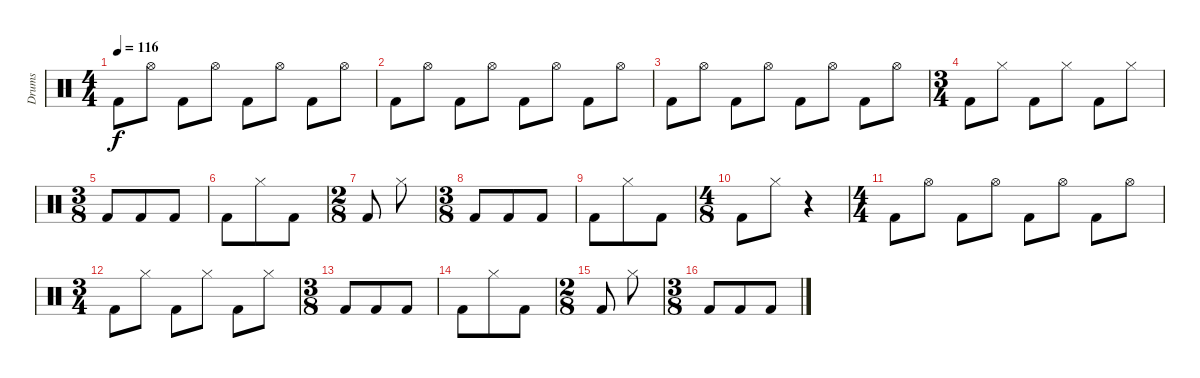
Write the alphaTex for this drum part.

\track ("Drums" "Drums") {instrument percussion}
\staff {score}
\articulation defaults
\ts (4 4)
\tempo 116
\clef neutral
\ks c "Kick (hit) 2".8{dy f} "Hi-Hat (open)".8 "Kick (hit) 2".8 "Hi-Hat (open)".8 "Kick (hit) 2".8 "Hi-Hat (open)".8 "Kick (hit) 2".8 "Hi-Hat (open)".8
|
"Kick (hit) 2".8 "Hi-Hat (open)".8 "Kick (hit) 2".8 "Hi-Hat (open)".8 "Kick (hit) 2".8 "Hi-Hat (open)".8 "Kick (hit) 2".8 "Hi-Hat (open)".8 |
"Kick (hit) 2".8 "Hi-Hat (open)".8 "Kick (hit) 2".8 "Hi-Hat (open)".8 "Kick (hit) 2".8 "Hi-Hat (open)".8 "Kick (hit) 2".8 "Hi-Hat (open)".8 |
\ts (3 4)
"Kick (hit) 2".8 "Hi-Hat (closed)".8 "Kick (hit) 2".8 "Hi-Hat (closed)".8 "Kick (hit) 2".8 "Hi-Hat (closed)".8 |
\ts (3 8)
"Kick (hit) 2".8 "Kick (hit) 2".8 "Kick (hit) 2".8 |
"Kick (hit) 2".8 "Hi-Hat (closed)".8 "Kick (hit) 2".8 |
\ts (2 8)
"Kick (hit) 2".8 "Hi-Hat (closed)".8 |
\ts (3 8)
"Kick (hit) 2".8 "Kick (hit) 2".8 "Kick (hit) 2".8 |
"Kick (hit) 2".8 "Hi-Hat (closed)".8 "Kick (hit) 2".8 |
\ts (4 8)
"Kick (hit) 2".8 "Hi-Hat (closed)".8 r.4 |
\ts (4 4)
"Kick (hit) 2".8 "Hi-Hat (open)".8 "Kick (hit) 2".8 "Hi-Hat (open)".8 "Kick (hit) 2".8 "Hi-Hat (open)".8 "Kick (hit) 2".8 "Hi-Hat (open)".8 |
\ts (3 4)
"Kick (hit) 2".8 "Hi-Hat (closed)".8 "Kick (hit) 2".8 "Hi-Hat (closed)".8 "Kick (hit) 2".8 "Hi-Hat (closed)".8 |
\ts (3 8)
"Kick (hit) 2".8 "Kick (hit) 2".8 "Kick (hit) 2".8 |
"Kick (hit) 2".8 "Hi-Hat (closed)".8 "Kick (hit) 2".8 |
\ts (2 8)
"Kick (hit) 2".8 "Hi-Hat (closed)".8 |
\ts (3 8)
"Kick (hit) 2".8 "Kick (hit) 2".8 "Kick (hit) 2".8
